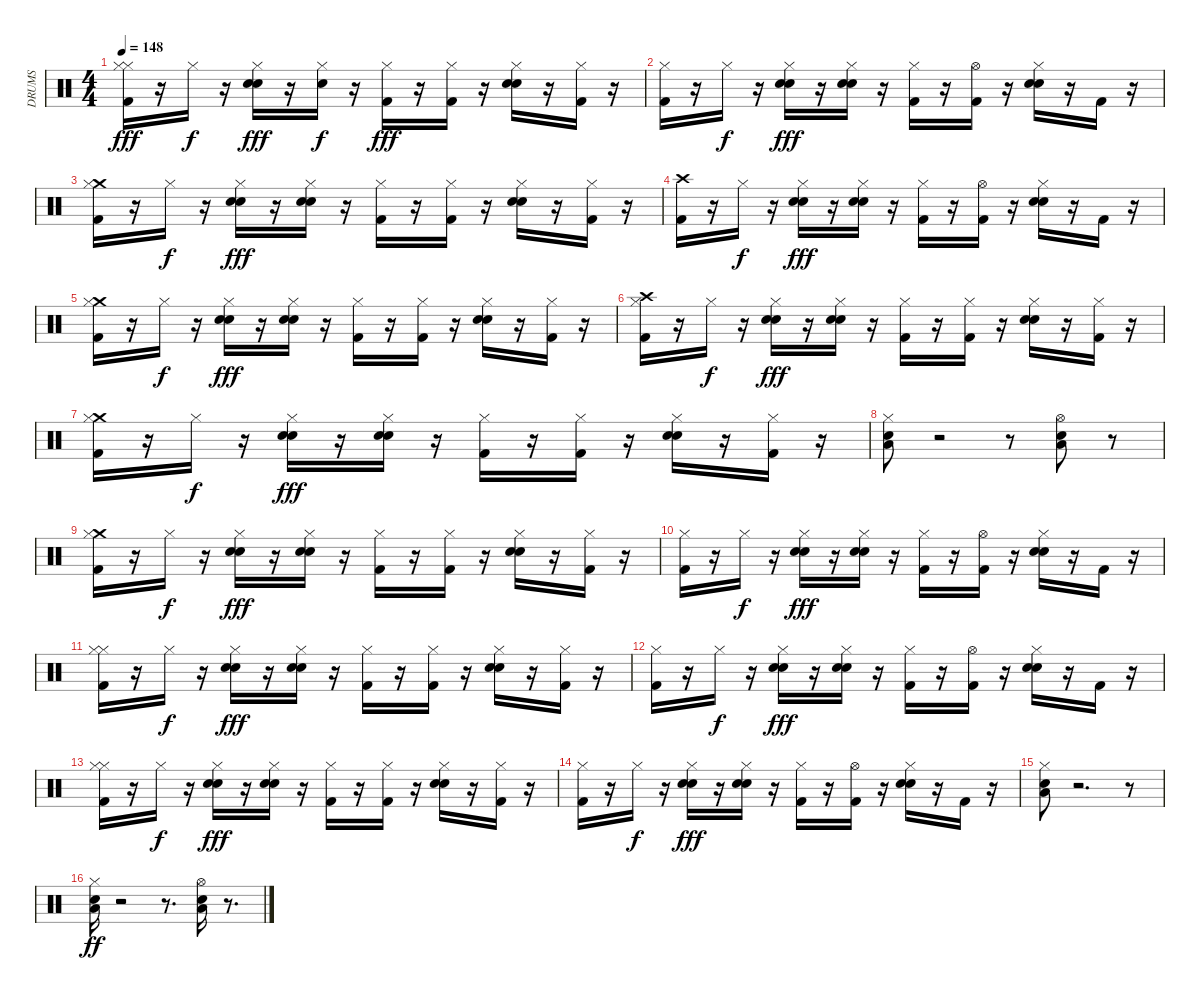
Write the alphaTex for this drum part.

\track ("DRUMS" "DRUMS") {instrument percussion}
\staff {score}
\articulation defaults
\ts (4 4)
\tempo 148
\clef neutral
\ks c
("Hi-Hat (closed)" "Kick (hit) 2" "Hi-Hat (closed)").16{dy fff} r.16 "Hi-Hat (closed)".16{dy f} r.16 ("Hi-Hat (closed)" "Hand Clap (hit)" "Snare (hit) 2").16{dy fff} r.16 ("Hand Clap (hit)" "Hi-Hat (closed)").16{dy f} r.16 ("Hi-Hat (closed)" "Kick (hit) 2").16{dy fff} r.16 ("Hi-Hat (closed)" "Kick (hit) 2").16 r.16 ("Hi-Hat (closed)" "Hand Clap (hit)" "Snare (hit) 2").16 r.16 ("Hi-Hat (closed)" "Kick (hit) 2").16 r.16 |
("Hi-Hat (closed)" "Kick (hit) 2").16 r.16 "Hi-Hat (closed)".16{dy f} r.16 ("Hi-Hat (closed)" "Hand Clap (hit)" "Snare (hit) 2").16{dy fff} r.16 ("Hi-Hat (closed)" "Hand Clap (hit)" "Snare (hit) 2").16 r.16 ("Hi-Hat (closed)" "Kick (hit) 2").16 r.16 ("Hi-Hat (open)" "Kick (hit) 2").16 r.16 ("Hand Clap (hit)" "Snare (hit) 2" "Hi-Hat (closed)").16 r.16 "Kick (hit) 2".16 r.16 |
("Crash medium (hit)" "Kick (hit) 2" "Hi-Hat (closed)").16 r.16 "Hi-Hat (closed)".16{dy f} r.16 ("Hi-Hat (closed)" "Hand Clap (hit)" "Snare (hit) 2").16{dy fff} r.16 ("Snare (hit) 2" "Hand Clap (hit)" "Hi-Hat (closed)").16 r.16 ("Hi-Hat (closed)" "Kick (hit) 2").16 r.16 ("Hi-Hat (closed)" "Kick (hit) 2").16 r.16 ("Hi-Hat (closed)" "Hand Clap (hit)" "Snare (hit) 2").16 r.16 ("Hi-Hat (closed)" "Kick (hit) 2").16 r.16 |
("Crash high (hit)" "Kick (hit) 2").16 r.16 "Hi-Hat (closed)".16{dy f} r.16 ("Hi-Hat (closed)" "Hand Clap (hit)" "Snare (hit) 2").16{dy fff} r.16 ("Hi-Hat (closed)" "Hand Clap (hit)" "Snare (hit) 2").16 r.16 ("Hi-Hat (closed)" "Kick (hit) 2").16 r.16 ("Hi-Hat (open)" "Kick (hit) 2").16 r.16 ("Hand Clap (hit)" "Snare (hit) 2" "Hi-Hat (closed)").16 r.16 "Kick (hit) 2".16 r.16 |
("Crash medium (hit)" "Kick (hit) 2" "Hi-Hat (closed)").16 r.16 "Hi-Hat (closed)".16{dy f} r.16 ("Hi-Hat (closed)" "Hand Clap (hit)" "Snare (hit) 2").16{dy fff} r.16 ("Snare (hit) 2" "Hand Clap (hit)" "Hi-Hat (closed)").16 r.16 ("Hi-Hat (closed)" "Kick (hit) 2").16 r.16 ("Hi-Hat (closed)" "Kick (hit) 2").16 r.16 ("Hi-Hat (closed)" "Hand Clap (hit)" "Snare (hit) 2").16 r.16 ("Hi-Hat (closed)" "Kick (hit) 2").16 r.16 |
("Crash high (hit)" "Kick (hit) 2" "Hi-Hat (closed)").16 r.16 "Hi-Hat (closed)".16{dy f} r.16 ("Hi-Hat (closed)" "Hand Clap (hit)" "Snare (hit) 2").16{dy fff} r.16 ("Snare (hit) 2" "Hand Clap (hit)" "Hi-Hat (closed)").16 r.16 ("Hi-Hat (closed)" "Kick (hit) 2").16 r.16 ("Hi-Hat (closed)" "Kick (hit) 2").16 r.16 ("Hi-Hat (closed)" "Hand Clap (hit)" "Snare (hit) 2").16 r.16 ("Hi-Hat (closed)" "Kick (hit) 2").16 r.16 |
("Crash medium (hit)" "Kick (hit) 2" "Hi-Hat (closed)").16 r.16 "Hi-Hat (closed)".16{dy f} r.16 ("Hi-Hat (closed)" "Hand Clap (hit)" "Snare (hit) 2").16{dy fff} r.16 ("Snare (hit) 2" "Hand Clap (hit)" "Hi-Hat (closed)").16 r.16 ("Hi-Hat (closed)" "Kick (hit) 2").16 r.16 ("Hi-Hat (closed)" "Kick (hit) 2").16 r.16 ("Hi-Hat (closed)" "Hand Clap (hit)" "Snare (hit) 2").16 r.16 ("Hi-Hat (closed)" "Kick (hit) 2").16 r.16 |
("Low Floor Tom (hit)" "Snare (hit) 2" "Hi-Hat (closed)").8 r.2 r.8 ("Low Floor Tom (hit)" "Snare (hit) 2" "Hi-Hat (open)").8 r.8 |
("Crash medium (hit)" "Kick (hit) 2" "Hi-Hat (closed)").16 r.16 "Hi-Hat (closed)".16{dy f} r.16 ("Hi-Hat (closed)" "Hand Clap (hit)" "Snare (hit) 2").16{dy fff} r.16 ("Snare (hit) 2" "Hand Clap (hit)" "Hi-Hat (closed)").16 r.16 ("Hi-Hat (closed)" "Kick (hit) 2").16 r.16 ("Hi-Hat (closed)" "Kick (hit) 2").16 r.16 ("Hi-Hat (closed)" "Hand Clap (hit)" "Snare (hit) 2").16 r.16 ("Hi-Hat (closed)" "Kick (hit) 2").16 r.16 |
("Hi-Hat (closed)" "Kick (hit) 2").16 r.16 "Hi-Hat (closed)".16{dy f} r.16 ("Hi-Hat (closed)" "Hand Clap (hit)" "Snare (hit) 2").16{dy fff} r.16 ("Hi-Hat (closed)" "Hand Clap (hit)" "Snare (hit) 2").16 r.16 ("Hi-Hat (closed)" "Kick (hit) 2").16 r.16 ("Hi-Hat (open)" "Kick (hit) 2").16 r.16 ("Hand Clap (hit)" "Snare (hit) 2" "Hi-Hat (closed)").16 r.16 "Kick (hit) 2".16 r.16 |
("Hi-Hat (closed)" "Kick (hit) 2" "Hi-Hat (closed)").16 r.16 "Hi-Hat (closed)".16{dy f} r.16 ("Hi-Hat (closed)" "Hand Clap (hit)" "Snare (hit) 2").16{dy fff} r.16 ("Snare (hit) 2" "Hand Clap (hit)" "Hi-Hat (closed)").16 r.16 ("Hi-Hat (closed)" "Kick (hit) 2").16 r.16 ("Hi-Hat (closed)" "Kick (hit) 2").16 r.16 ("Hi-Hat (closed)" "Hand Clap (hit)" "Snare (hit) 2").16 r.16 ("Hi-Hat (closed)" "Kick (hit) 2").16 r.16 |
("Hi-Hat (closed)" "Kick (hit) 2").16 r.16 "Hi-Hat (closed)".16{dy f} r.16 ("Hi-Hat (closed)" "Hand Clap (hit)" "Snare (hit) 2").16{dy fff} r.16 ("Hi-Hat (closed)" "Hand Clap (hit)" "Snare (hit) 2").16 r.16 ("Hi-Hat (closed)" "Kick (hit) 2").16 r.16 ("Hi-Hat (open)" "Kick (hit) 2").16 r.16 ("Hand Clap (hit)" "Snare (hit) 2" "Hi-Hat (closed)").16 r.16 "Kick (hit) 2".16 r.16 |
("Hi-Hat (closed)" "Kick (hit) 2" "Hi-Hat (closed)").16 r.16 "Hi-Hat (closed)".16{dy f} r.16 ("Hi-Hat (closed)" "Hand Clap (hit)" "Snare (hit) 2").16{dy fff} r.16 ("Snare (hit) 2" "Hand Clap (hit)" "Hi-Hat (closed)").16 r.16 ("Hi-Hat (closed)" "Kick (hit) 2").16 r.16 ("Hi-Hat (closed)" "Kick (hit) 2").16 r.16 ("Hi-Hat (closed)" "Hand Clap (hit)" "Snare (hit) 2").16 r.16 ("Hi-Hat (closed)" "Kick (hit) 2").16 r.16 |
("Hi-Hat (closed)" "Kick (hit) 2").16 r.16 "Hi-Hat (closed)".16{dy f} r.16 ("Hi-Hat (closed)" "Hand Clap (hit)" "Snare (hit) 2").16{dy fff} r.16 ("Hi-Hat (closed)" "Hand Clap (hit)" "Snare (hit) 2").16 r.16 ("Hi-Hat (closed)" "Kick (hit) 2").16 r.16 ("Hi-Hat (open)" "Kick (hit) 2").16 r.16 ("Hand Clap (hit)" "Snare (hit) 2" "Hi-Hat (closed)").16 r.16 "Kick (hit) 2".16 r.16 |
("Low Floor Tom (hit)" "Snare (hit) 2" "Hi-Hat (closed)").8 r.2{d} r.8 |
("Snare (hit) 2" "Hi-Hat (closed)" "Low Floor Tom (hit)").16{dy ff} r.2 r.8{d} ("Snare (hit) 2" "Hi-Hat (open)" "Low Floor Tom (hit)").16 r.8{d}
